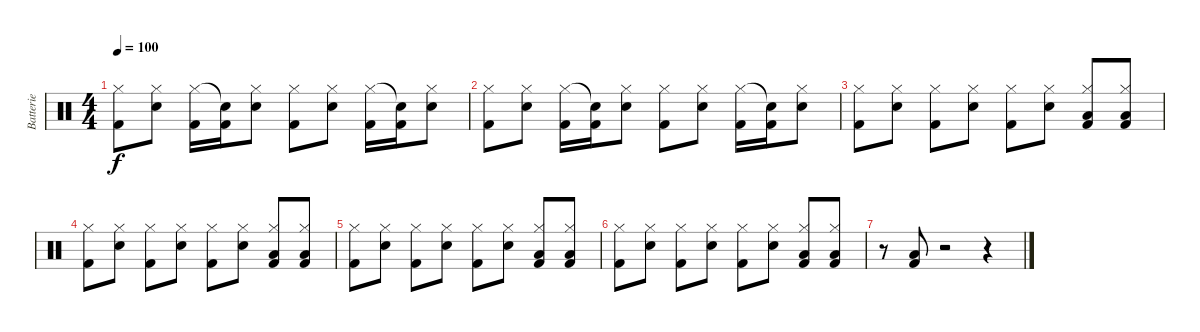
\track ("Batterie" "Batterie") {instrument percussion}
\staff {score}
\articulation defaults
\ts (4 4)
\tempo 100
\clef neutral
\ks c
("Kick (hit) 2" "Hi-Hat (closed)").8{dy f} ("Electric Snare (hit)" "Hi-Hat (closed)").8 ("Kick (hit) 2" "Hi-Hat (closed)").16 ("Kick (hit) 2" "Snare (hit)"{t}).16 ("Electric Snare (hit)" "Hi-Hat (closed)").8 ("Kick (hit) 2" "Hi-Hat (closed)").8 ("Electric Snare (hit)" "Hi-Hat (closed)").8 ("Kick (hit) 2" "Hi-Hat (closed)").16 ("Kick (hit) 2" "Snare (hit)"{t}).16 ("Electric Snare (hit)" "Hi-Hat (closed)").8 |
("Kick (hit) 2" "Hi-Hat (closed)").8 ("Electric Snare (hit)" "Hi-Hat (closed)").8 ("Kick (hit) 2" "Hi-Hat (closed)").16 ("Kick (hit) 2" "Snare (hit)"{t}).16 ("Electric Snare (hit)" "Hi-Hat (closed)").8 ("Kick (hit) 2" "Hi-Hat (closed)").8 ("Electric Snare (hit)" "Hi-Hat (closed)").8 ("Kick (hit) 2" "Hi-Hat (closed)").16 ("Kick (hit) 2" "Snare (hit)"{t}).16 ("Electric Snare (hit)" "Hi-Hat (closed)").8 |
("Kick (hit) 2" "Hi-Hat (closed)").8 ("Electric Snare (hit)" "Hi-Hat (closed)").8 ("Kick (hit) 2" "Hi-Hat (closed)").8 ("Electric Snare (hit)" "Hi-Hat (closed)").8 ("Kick (hit) 2" "Hi-Hat (closed)").8 ("Electric Snare (hit)" "Hi-Hat (closed)").8 ("Low Tom (hit)" "Kick (hit) 2" "Hi-Hat (closed)").8 ("Low Tom (hit)" "Kick (hit) 2" "Hi-Hat (closed)").8 |
("Kick (hit) 2" "Hi-Hat (closed)").8 ("Electric Snare (hit)" "Hi-Hat (closed)").8 ("Kick (hit) 2" "Hi-Hat (closed)").8 ("Electric Snare (hit)" "Hi-Hat (closed)").8 ("Kick (hit) 2" "Hi-Hat (closed)").8 ("Electric Snare (hit)" "Hi-Hat (closed)").8 ("Low Tom (hit)" "Kick (hit) 2" "Hi-Hat (closed)").8 ("Low Tom (hit)" "Kick (hit) 2" "Hi-Hat (closed)").8 |
("Kick (hit) 2" "Hi-Hat (closed)").8 ("Electric Snare (hit)" "Hi-Hat (closed)").8 ("Kick (hit) 2" "Hi-Hat (closed)").8 ("Electric Snare (hit)" "Hi-Hat (closed)").8 ("Kick (hit) 2" "Hi-Hat (closed)").8 ("Electric Snare (hit)" "Hi-Hat (closed)").8 ("Low Tom (hit)" "Kick (hit) 2" "Hi-Hat (closed)").8 ("Low Tom (hit)" "Kick (hit) 2" "Hi-Hat (closed)").8 |
("Kick (hit) 2" "Hi-Hat (closed)").8 ("Electric Snare (hit)" "Hi-Hat (closed)").8 ("Kick (hit) 2" "Hi-Hat (closed)").8 ("Electric Snare (hit)" "Hi-Hat (closed)").8 ("Kick (hit) 2" "Hi-Hat (closed)").8 ("Electric Snare (hit)" "Hi-Hat (closed)").8 ("Low Tom (hit)" "Kick (hit) 2" "Hi-Hat (closed)").8 ("Low Tom (hit)" "Kick (hit) 2" "Hi-Hat (closed)").8 |
r.8 ("Kick (hit) 2" "Low Tom (hit)").8 r.2 r.4
